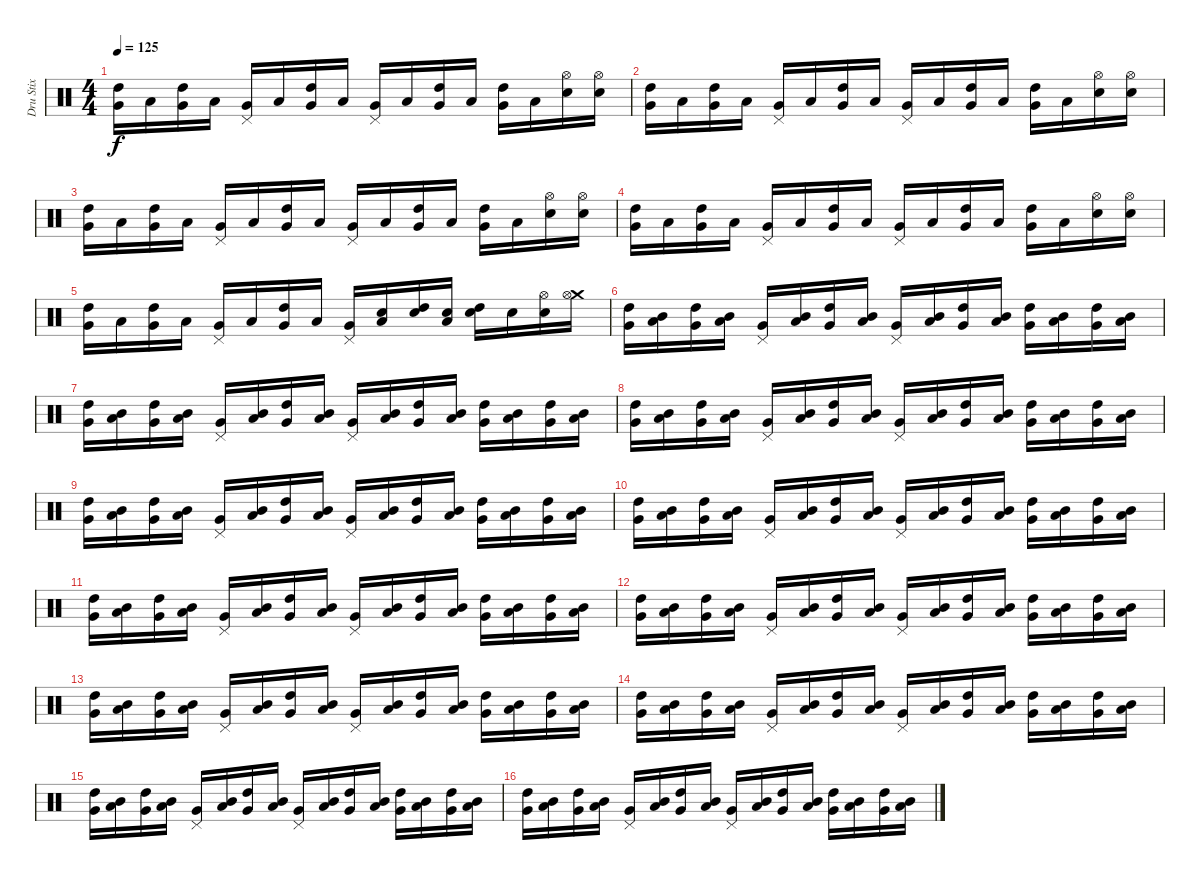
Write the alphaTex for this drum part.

\track ("Dru Stix" "Dru Stix") {instrument percussion}
\staff {score}
\articulation defaults
\ts (4 4)
\tempo 125
\clef neutral
\ks c
("High Tom (hit)" "Very Low Tom (hit)").16{dy f} "Low Floor Tom (hit)".16 ("High Tom (hit)" "Very Low Tom (hit)").16 "Low Floor Tom (hit)".16 ("Pedal Hi-Hat (hit)" "Very Low Tom (hit)").16 "Low Floor Tom (hit)".16 ("High Tom (hit)" "Very Low Tom (hit)").16 "Low Floor Tom (hit)".16 ("Pedal Hi-Hat (hit)" "Very Low Tom (hit)").16 "Low Floor Tom (hit)".16 ("High Tom (hit)" "Very Low Tom (hit)").16 "Low Floor Tom (hit)".16 ("High Tom (hit)" "Very Low Tom (hit)").16 "Low Floor Tom (hit)".16 ("Hi-Hat (open)" "Snare (hit) 2").16 ("Hi-Hat (open)" "Snare (hit) 2").16 |
("High Tom (hit)" "Very Low Tom (hit)").16 "Low Floor Tom (hit)".16 ("High Tom (hit)" "Very Low Tom (hit)").16 "Low Floor Tom (hit)".16 ("Pedal Hi-Hat (hit)" "Very Low Tom (hit)").16 "Low Floor Tom (hit)".16 ("High Tom (hit)" "Very Low Tom (hit)").16 "Low Floor Tom (hit)".16 ("Pedal Hi-Hat (hit)" "Very Low Tom (hit)").16 "Low Floor Tom (hit)".16 ("High Tom (hit)" "Very Low Tom (hit)").16 "Low Floor Tom (hit)".16 ("High Tom (hit)" "Very Low Tom (hit)").16 "Low Floor Tom (hit)".16 ("Hi-Hat (open)" "Snare (hit) 2").16 ("Hi-Hat (open)" "Snare (hit) 2").16 |
("High Tom (hit)" "Very Low Tom (hit)").16 "Low Floor Tom (hit)".16 ("High Tom (hit)" "Very Low Tom (hit)").16 "Low Floor Tom (hit)".16 ("Pedal Hi-Hat (hit)" "Very Low Tom (hit)").16 "Low Floor Tom (hit)".16 ("High Tom (hit)" "Very Low Tom (hit)").16 "Low Floor Tom (hit)".16 ("Pedal Hi-Hat (hit)" "Very Low Tom (hit)").16 "Low Floor Tom (hit)".16 ("High Tom (hit)" "Very Low Tom (hit)").16 "Low Floor Tom (hit)".16 ("High Tom (hit)" "Very Low Tom (hit)").16 "Low Floor Tom (hit)".16 ("Hi-Hat (open)" "Snare (hit) 2").16 ("Hi-Hat (open)" "Snare (hit) 2").16 |
("High Tom (hit)" "Very Low Tom (hit)").16 "Low Floor Tom (hit)".16 ("High Tom (hit)" "Very Low Tom (hit)").16 "Low Floor Tom (hit)".16 ("Pedal Hi-Hat (hit)" "Very Low Tom (hit)").16 "Low Floor Tom (hit)".16 ("High Tom (hit)" "Very Low Tom (hit)").16 "Low Floor Tom (hit)".16 ("Pedal Hi-Hat (hit)" "Very Low Tom (hit)").16 "Low Floor Tom (hit)".16 ("High Tom (hit)" "Very Low Tom (hit)").16 "Low Floor Tom (hit)".16 ("High Tom (hit)" "Very Low Tom (hit)").16 "Low Floor Tom (hit)".16 ("Hi-Hat (open)" "Snare (hit) 2").16 ("Hi-Hat (open)" "Snare (hit) 2").16 |
("High Tom (hit)" "Very Low Tom (hit)").16 "Low Floor Tom (hit)".16 ("High Tom (hit)" "Very Low Tom (hit)").16 "Low Floor Tom (hit)".16 ("Pedal Hi-Hat (hit)" "Very Low Tom (hit)").16 "Low Floor Tom (hit)".16 ("High Tom (hit)" "Very Low Tom (hit)").16 "Low Floor Tom (hit)".16 ("Pedal Hi-Hat (hit)" "Very Low Tom (hit)").16 ("Low Floor Tom (hit)" "Snare (hit) 2").16 ("High Tom (hit)" "Snare (hit) 2").16 ("Low Floor Tom (hit)" "Snare (hit) 2").16 ("High Tom (hit)" "Snare (hit) 2").16 "Snare (hit) 2".16 ("Hi-Hat (open)" "Snare (hit) 2").16 ("Crash medium (hit)" "Hi-Hat (open)").16 |
("High Tom (hit)" "Very Low Tom (hit)").16 ("Mid Tom (hit)" "Low Floor Tom (hit)").16 ("High Tom (hit)" "Very Low Tom (hit)").16 ("Mid Tom (hit)" "Low Floor Tom (hit)").16 ("Pedal Hi-Hat (hit)" "Very Low Tom (hit)").16 ("Mid Tom (hit)" "Low Floor Tom (hit)").16 ("High Tom (hit)" "Very Low Tom (hit)").16 ("Mid Tom (hit)" "Low Floor Tom (hit)").16 ("Pedal Hi-Hat (hit)" "Very Low Tom (hit)").16 ("Mid Tom (hit)" "Low Floor Tom (hit)").16 ("High Tom (hit)" "Very Low Tom (hit)").16 ("Mid Tom (hit)" "Low Floor Tom (hit)").16 ("High Tom (hit)" "Very Low Tom (hit)").16 ("Mid Tom (hit)" "Low Floor Tom (hit)").16 ("High Tom (hit)" "Very Low Tom (hit)").16 ("Mid Tom (hit)" "Low Floor Tom (hit)").16 |
("High Tom (hit)" "Very Low Tom (hit)").16 ("Mid Tom (hit)" "Low Floor Tom (hit)").16 ("High Tom (hit)" "Very Low Tom (hit)").16 ("Mid Tom (hit)" "Low Floor Tom (hit)").16 ("Pedal Hi-Hat (hit)" "Very Low Tom (hit)").16 ("Mid Tom (hit)" "Low Floor Tom (hit)").16 ("High Tom (hit)" "Very Low Tom (hit)").16 ("Mid Tom (hit)" "Low Floor Tom (hit)").16 ("Pedal Hi-Hat (hit)" "Very Low Tom (hit)").16 ("Mid Tom (hit)" "Low Floor Tom (hit)").16 ("High Tom (hit)" "Very Low Tom (hit)").16 ("Mid Tom (hit)" "Low Floor Tom (hit)").16 ("High Tom (hit)" "Very Low Tom (hit)").16 ("Mid Tom (hit)" "Low Floor Tom (hit)").16 ("High Tom (hit)" "Very Low Tom (hit)").16 ("Mid Tom (hit)" "Low Floor Tom (hit)").16 |
("High Tom (hit)" "Very Low Tom (hit)").16 ("Mid Tom (hit)" "Low Floor Tom (hit)").16 ("High Tom (hit)" "Very Low Tom (hit)").16 ("Mid Tom (hit)" "Low Floor Tom (hit)").16 ("Pedal Hi-Hat (hit)" "Very Low Tom (hit)").16 ("Mid Tom (hit)" "Low Floor Tom (hit)").16 ("High Tom (hit)" "Very Low Tom (hit)").16 ("Mid Tom (hit)" "Low Floor Tom (hit)").16 ("Pedal Hi-Hat (hit)" "Very Low Tom (hit)").16 ("Mid Tom (hit)" "Low Floor Tom (hit)").16 ("High Tom (hit)" "Very Low Tom (hit)").16 ("Mid Tom (hit)" "Low Floor Tom (hit)").16 ("High Tom (hit)" "Very Low Tom (hit)").16 ("Mid Tom (hit)" "Low Floor Tom (hit)").16 ("High Tom (hit)" "Very Low Tom (hit)").16 ("Mid Tom (hit)" "Low Floor Tom (hit)").16 |
("High Tom (hit)" "Very Low Tom (hit)").16 ("Mid Tom (hit)" "Low Floor Tom (hit)").16 ("High Tom (hit)" "Very Low Tom (hit)").16 ("Mid Tom (hit)" "Low Floor Tom (hit)").16 ("Pedal Hi-Hat (hit)" "Very Low Tom (hit)").16 ("Mid Tom (hit)" "Low Floor Tom (hit)").16 ("High Tom (hit)" "Very Low Tom (hit)").16 ("Mid Tom (hit)" "Low Floor Tom (hit)").16 ("Pedal Hi-Hat (hit)" "Very Low Tom (hit)").16 ("Mid Tom (hit)" "Low Floor Tom (hit)").16 ("High Tom (hit)" "Very Low Tom (hit)").16 ("Mid Tom (hit)" "Low Floor Tom (hit)").16 ("High Tom (hit)" "Very Low Tom (hit)").16 ("Mid Tom (hit)" "Low Floor Tom (hit)").16 ("High Tom (hit)" "Very Low Tom (hit)").16 ("Mid Tom (hit)" "Low Floor Tom (hit)").16 |
("High Tom (hit)" "Very Low Tom (hit)").16 ("Mid Tom (hit)" "Low Floor Tom (hit)").16 ("High Tom (hit)" "Very Low Tom (hit)").16 ("Mid Tom (hit)" "Low Floor Tom (hit)").16 ("Pedal Hi-Hat (hit)" "Very Low Tom (hit)").16 ("Mid Tom (hit)" "Low Floor Tom (hit)").16 ("High Tom (hit)" "Very Low Tom (hit)").16 ("Mid Tom (hit)" "Low Floor Tom (hit)").16 ("Pedal Hi-Hat (hit)" "Very Low Tom (hit)").16 ("Mid Tom (hit)" "Low Floor Tom (hit)").16 ("High Tom (hit)" "Very Low Tom (hit)").16 ("Mid Tom (hit)" "Low Floor Tom (hit)").16 ("High Tom (hit)" "Very Low Tom (hit)").16 ("Mid Tom (hit)" "Low Floor Tom (hit)").16 ("High Tom (hit)" "Very Low Tom (hit)").16 ("Mid Tom (hit)" "Low Floor Tom (hit)").16 |
("High Tom (hit)" "Very Low Tom (hit)").16 ("Mid Tom (hit)" "Low Floor Tom (hit)").16 ("High Tom (hit)" "Very Low Tom (hit)").16 ("Mid Tom (hit)" "Low Floor Tom (hit)").16 ("Pedal Hi-Hat (hit)" "Very Low Tom (hit)").16 ("Mid Tom (hit)" "Low Floor Tom (hit)").16 ("High Tom (hit)" "Very Low Tom (hit)").16 ("Mid Tom (hit)" "Low Floor Tom (hit)").16 ("Pedal Hi-Hat (hit)" "Very Low Tom (hit)").16 ("Mid Tom (hit)" "Low Floor Tom (hit)").16 ("High Tom (hit)" "Very Low Tom (hit)").16 ("Mid Tom (hit)" "Low Floor Tom (hit)").16 ("High Tom (hit)" "Very Low Tom (hit)").16 ("Mid Tom (hit)" "Low Floor Tom (hit)").16 ("High Tom (hit)" "Very Low Tom (hit)").16 ("Mid Tom (hit)" "Low Floor Tom (hit)").16 |
("High Tom (hit)" "Very Low Tom (hit)").16 ("Mid Tom (hit)" "Low Floor Tom (hit)").16 ("High Tom (hit)" "Very Low Tom (hit)").16 ("Mid Tom (hit)" "Low Floor Tom (hit)").16 ("Pedal Hi-Hat (hit)" "Very Low Tom (hit)").16 ("Mid Tom (hit)" "Low Floor Tom (hit)").16 ("High Tom (hit)" "Very Low Tom (hit)").16 ("Mid Tom (hit)" "Low Floor Tom (hit)").16 ("Pedal Hi-Hat (hit)" "Very Low Tom (hit)").16 ("Mid Tom (hit)" "Low Floor Tom (hit)").16 ("High Tom (hit)" "Very Low Tom (hit)").16 ("Mid Tom (hit)" "Low Floor Tom (hit)").16 ("High Tom (hit)" "Very Low Tom (hit)").16 ("Mid Tom (hit)" "Low Floor Tom (hit)").16 ("High Tom (hit)" "Very Low Tom (hit)").16 ("Mid Tom (hit)" "Low Floor Tom (hit)").16 |
("High Tom (hit)" "Very Low Tom (hit)").16 ("Mid Tom (hit)" "Low Floor Tom (hit)").16 ("High Tom (hit)" "Very Low Tom (hit)").16 ("Mid Tom (hit)" "Low Floor Tom (hit)").16 ("Pedal Hi-Hat (hit)" "Very Low Tom (hit)").16 ("Mid Tom (hit)" "Low Floor Tom (hit)").16 ("High Tom (hit)" "Very Low Tom (hit)").16 ("Mid Tom (hit)" "Low Floor Tom (hit)").16 ("Pedal Hi-Hat (hit)" "Very Low Tom (hit)").16 ("Mid Tom (hit)" "Low Floor Tom (hit)").16 ("High Tom (hit)" "Very Low Tom (hit)").16 ("Mid Tom (hit)" "Low Floor Tom (hit)").16 ("High Tom (hit)" "Very Low Tom (hit)").16 ("Mid Tom (hit)" "Low Floor Tom (hit)").16 ("High Tom (hit)" "Very Low Tom (hit)").16 ("Mid Tom (hit)" "Low Floor Tom (hit)").16 |
("High Tom (hit)" "Very Low Tom (hit)").16 ("Mid Tom (hit)" "Low Floor Tom (hit)").16 ("High Tom (hit)" "Very Low Tom (hit)").16 ("Mid Tom (hit)" "Low Floor Tom (hit)").16 ("Pedal Hi-Hat (hit)" "Very Low Tom (hit)").16 ("Mid Tom (hit)" "Low Floor Tom (hit)").16 ("High Tom (hit)" "Very Low Tom (hit)").16 ("Mid Tom (hit)" "Low Floor Tom (hit)").16 ("Pedal Hi-Hat (hit)" "Very Low Tom (hit)").16 ("Mid Tom (hit)" "Low Floor Tom (hit)").16 ("High Tom (hit)" "Very Low Tom (hit)").16 ("Mid Tom (hit)" "Low Floor Tom (hit)").16 ("High Tom (hit)" "Very Low Tom (hit)").16 ("Mid Tom (hit)" "Low Floor Tom (hit)").16 ("High Tom (hit)" "Very Low Tom (hit)").16 ("Mid Tom (hit)" "Low Floor Tom (hit)").16 |
("High Tom (hit)" "Very Low Tom (hit)").16 ("Mid Tom (hit)" "Low Floor Tom (hit)").16 ("High Tom (hit)" "Very Low Tom (hit)").16 ("Mid Tom (hit)" "Low Floor Tom (hit)").16 ("Pedal Hi-Hat (hit)" "Very Low Tom (hit)").16 ("Mid Tom (hit)" "Low Floor Tom (hit)").16 ("High Tom (hit)" "Very Low Tom (hit)").16 ("Mid Tom (hit)" "Low Floor Tom (hit)").16 ("Pedal Hi-Hat (hit)" "Very Low Tom (hit)").16 ("Mid Tom (hit)" "Low Floor Tom (hit)").16 ("High Tom (hit)" "Very Low Tom (hit)").16 ("Mid Tom (hit)" "Low Floor Tom (hit)").16 ("High Tom (hit)" "Very Low Tom (hit)").16 ("Mid Tom (hit)" "Low Floor Tom (hit)").16 ("High Tom (hit)" "Very Low Tom (hit)").16 ("Mid Tom (hit)" "Low Floor Tom (hit)").16 |
("High Tom (hit)" "Very Low Tom (hit)").16 ("Mid Tom (hit)" "Low Floor Tom (hit)").16 ("High Tom (hit)" "Very Low Tom (hit)").16 ("Mid Tom (hit)" "Low Floor Tom (hit)").16 ("Pedal Hi-Hat (hit)" "Very Low Tom (hit)").16 ("Mid Tom (hit)" "Low Floor Tom (hit)").16 ("High Tom (hit)" "Very Low Tom (hit)").16 ("Mid Tom (hit)" "Low Floor Tom (hit)").16 ("Pedal Hi-Hat (hit)" "Very Low Tom (hit)").16 ("Mid Tom (hit)" "Low Floor Tom (hit)").16 ("High Tom (hit)" "Very Low Tom (hit)").16 ("Mid Tom (hit)" "Low Floor Tom (hit)").16 ("High Tom (hit)" "Very Low Tom (hit)").16 ("Mid Tom (hit)" "Low Floor Tom (hit)").16 ("High Tom (hit)" "Very Low Tom (hit)").16 ("Mid Tom (hit)" "Low Floor Tom (hit)").16
